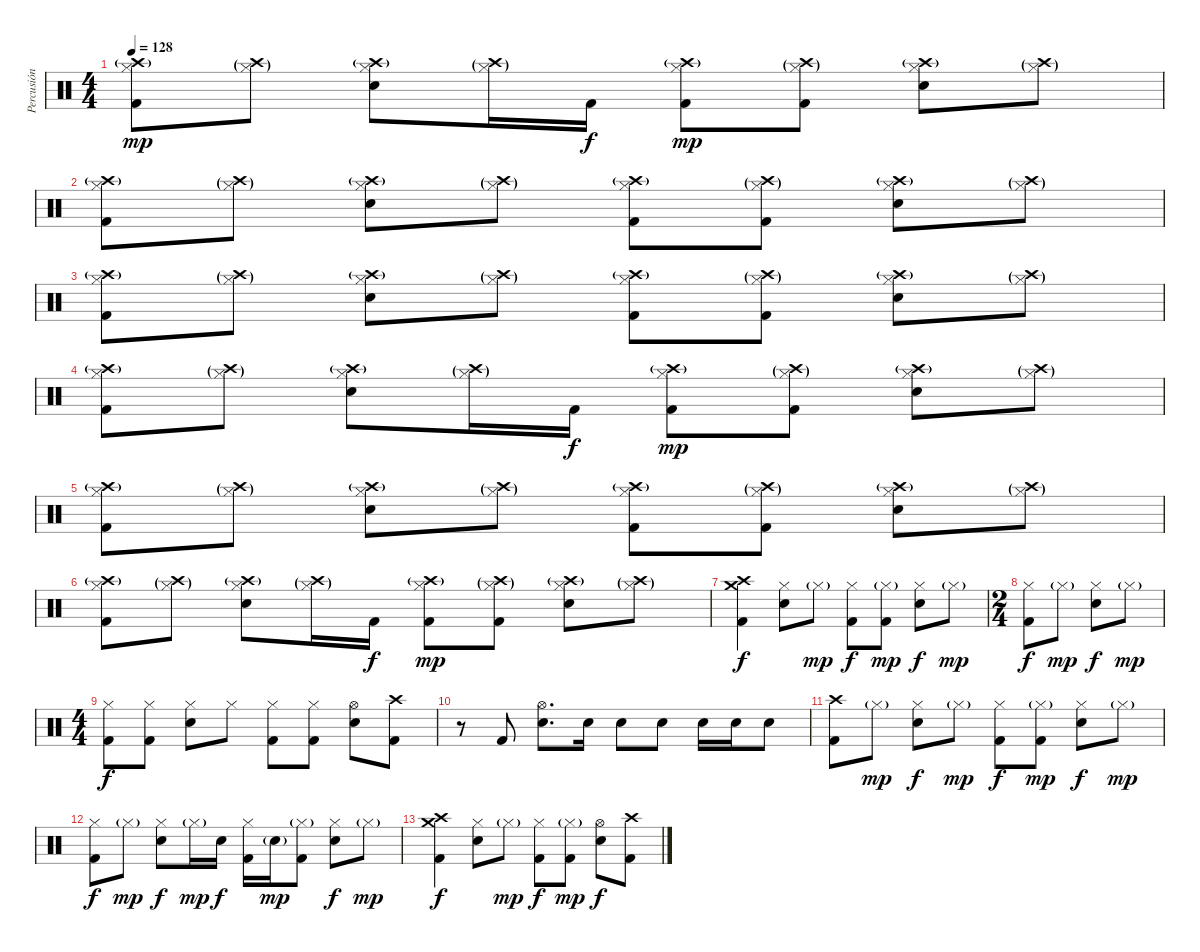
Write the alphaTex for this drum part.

\track ("Percusión" "Percusión") {instrument percussion}
\staff {score}
\articulation defaults
\ts (4 4)
\tempo 128
\clef neutral
\ks c
("Crash high (hit)"{g} "Hi-Hat (closed)" "Kick (hit) 2").8{dy mp} ("Crash high (hit)"{g} "Hi-Hat (closed)"{g}).8 ("Crash high (hit)"{g} "Hi-Hat (closed)" "Snare (hit) 2").8 ("Crash high (hit)"{g} "Hi-Hat (closed)"{g}).16 "Kick (hit) 2".16{dy f} ("Crash high (hit)"{g} "Hi-Hat (closed)" "Kick (hit) 2").8{dy mp} ("Crash high (hit)"{g} "Hi-Hat (closed)"{g} "Kick (hit) 2").8 ("Crash high (hit)"{g} "Hi-Hat (closed)" "Snare (hit) 2").8 ("Crash high (hit)"{g} "Hi-Hat (closed)"{g}).8 |
("Crash high (hit)"{g} "Hi-Hat (closed)" "Kick (hit) 2").8 ("Crash high (hit)"{g} "Hi-Hat (closed)"{g}).8 ("Crash high (hit)"{g} "Hi-Hat (closed)" "Snare (hit) 2").8 ("Crash high (hit)"{g} "Hi-Hat (closed)"{g}).8 ("Crash high (hit)"{g} "Hi-Hat (closed)" "Kick (hit) 2").8 ("Crash high (hit)"{g} "Hi-Hat (closed)"{g} "Kick (hit) 2").8 ("Crash high (hit)"{g} "Hi-Hat (closed)" "Snare (hit) 2").8 ("Crash high (hit)"{g} "Hi-Hat (closed)"{g}).8 |
("Crash high (hit)"{g} "Hi-Hat (closed)" "Kick (hit) 2").8 ("Crash high (hit)"{g} "Hi-Hat (closed)"{g}).8 ("Crash high (hit)"{g} "Hi-Hat (closed)" "Snare (hit) 2").8 ("Crash high (hit)"{g} "Hi-Hat (closed)"{g}).8 ("Crash high (hit)"{g} "Hi-Hat (closed)" "Kick (hit) 2").8 ("Crash high (hit)"{g} "Hi-Hat (closed)"{g} "Kick (hit) 2").8 ("Crash high (hit)"{g} "Hi-Hat (closed)" "Snare (hit) 2").8 ("Crash high (hit)"{g} "Hi-Hat (closed)"{g}).8 |
("Crash high (hit)"{g} "Hi-Hat (closed)" "Kick (hit) 2").8 ("Crash high (hit)"{g} "Hi-Hat (closed)"{g}).8 ("Crash high (hit)"{g} "Hi-Hat (closed)" "Snare (hit) 2").8 ("Crash high (hit)"{g} "Hi-Hat (closed)"{g}).16 "Kick (hit) 2".16{dy f} ("Crash high (hit)"{g} "Hi-Hat (closed)" "Kick (hit) 2").8{dy mp} ("Crash high (hit)"{g} "Hi-Hat (closed)"{g} "Kick (hit) 2").8 ("Crash high (hit)"{g} "Hi-Hat (closed)" "Snare (hit) 2").8 ("Crash high (hit)"{g} "Hi-Hat (closed)"{g}).8 |
("Crash high (hit)"{g} "Hi-Hat (closed)" "Kick (hit) 2").8 ("Crash high (hit)"{g} "Hi-Hat (closed)"{g}).8 ("Crash high (hit)"{g} "Hi-Hat (closed)" "Snare (hit) 2").8 ("Crash high (hit)"{g} "Hi-Hat (closed)"{g}).8 ("Crash high (hit)"{g} "Hi-Hat (closed)" "Kick (hit) 2").8 ("Crash high (hit)"{g} "Hi-Hat (closed)"{g} "Kick (hit) 2").8 ("Crash high (hit)"{g} "Hi-Hat (closed)" "Snare (hit) 2").8 ("Crash high (hit)"{g} "Hi-Hat (closed)"{g}).8 |
("Crash high (hit)"{g} "Hi-Hat (closed)" "Kick (hit) 2").8 ("Crash high (hit)"{g} "Hi-Hat (closed)"{g}).8 ("Crash high (hit)"{g} "Hi-Hat (closed)" "Snare (hit) 2").8 ("Crash high (hit)"{g} "Hi-Hat (closed)"{g}).16 "Kick (hit) 2".16{dy f} ("Crash high (hit)"{g} "Hi-Hat (closed)" "Kick (hit) 2").8{dy mp} ("Crash high (hit)"{g} "Hi-Hat (closed)"{g} "Kick (hit) 2").8 ("Crash high (hit)"{g} "Hi-Hat (closed)" "Snare (hit) 2").8 ("Crash high (hit)"{g} "Hi-Hat (closed)"{g}).8 |
("Crash high (hit)" "Crash medium (hit)" "Kick (hit) 2").4{dy f} ("Hi-Hat (closed)" "Snare (hit) 2").8 "Hi-Hat (closed)"{g}.8{dy mp} ("Hi-Hat (closed)" "Kick (hit) 2").8{dy f} ("Hi-Hat (closed)"{g} "Kick (hit) 2").8{dy mp} ("Hi-Hat (closed)" "Snare (hit) 2").8{dy f} "Hi-Hat (closed)"{g}.8{dy mp} |
\ts (2 4)
("Hi-Hat (closed)" "Kick (hit) 2").8{dy f} "Hi-Hat (closed)"{g}.8{dy mp} ("Hi-Hat (closed)" "Snare (hit) 2").8{dy f} "Hi-Hat (closed)"{g}.8{dy mp} |
\ts (4 4)
("Hi-Hat (closed)" "Kick (hit) 2").8{dy f} ("Hi-Hat (closed)" "Kick (hit) 2").8 ("Hi-Hat (closed)" "Snare (hit) 2").8 "Hi-Hat (closed)".8 ("Hi-Hat (closed)" "Kick (hit) 2").8 ("Hi-Hat (closed)" "Kick (hit) 2").8 ("Hi-Hat (open)" "Snare (hit) 2").8 ("Crash high (hit)" "Kick (hit) 2").8 |
r.8 "Kick (hit) 2".8 ("Hi-Hat (open)" "Snare (hit) 2").8{d} "Snare (hit) 2".16 "Snare (hit) 2".8 "Snare (hit) 2".8 "Snare (hit) 2".16 "Snare (hit) 2".16 "Snare (hit) 2".8 |
("Crash high (hit)" "Kick (hit) 2").8 "Hi-Hat (closed)"{g}.8{dy mp} ("Hi-Hat (closed)" "Snare (hit) 2").8{dy f} "Hi-Hat (closed)"{g}.8{dy mp} ("Hi-Hat (closed)" "Kick (hit) 2").8{dy f} ("Hi-Hat (closed)"{g} "Kick (hit) 2").8{dy mp} ("Hi-Hat (closed)" "Snare (hit) 2").8{dy f} "Hi-Hat (closed)"{g}.8{dy mp} |
("Hi-Hat (closed)" "Kick (hit) 2").8{dy f} "Hi-Hat (closed)"{g}.8{dy mp} ("Hi-Hat (closed)" "Snare (hit) 2").8{dy f} "Hi-Hat (closed)"{g}.16{dy mp} "Snare (hit) 2".16{dy f} ("Hi-Hat (closed)" "Kick (hit) 2").16 "Snare (hit) 2"{g}.16{dy mp} ("Hi-Hat (closed)"{g} "Kick (hit) 2").8 ("Hi-Hat (closed)" "Snare (hit) 2").8{dy f} "Hi-Hat (closed)"{g}.8{dy mp} |
("Crash high (hit)" "Crash medium (hit)" "Kick (hit) 2").4{dy f} ("Hi-Hat (closed)" "Snare (hit) 2").8 "Hi-Hat (closed)"{g}.8{dy mp} ("Hi-Hat (closed)" "Kick (hit) 2").8{dy f} ("Hi-Hat (closed)"{g} "Kick (hit) 2").8{dy mp} ("Hi-Hat (open)" "Snare (hit) 2").8{dy f} ("Crash high (hit)" "Kick (hit) 2").8
